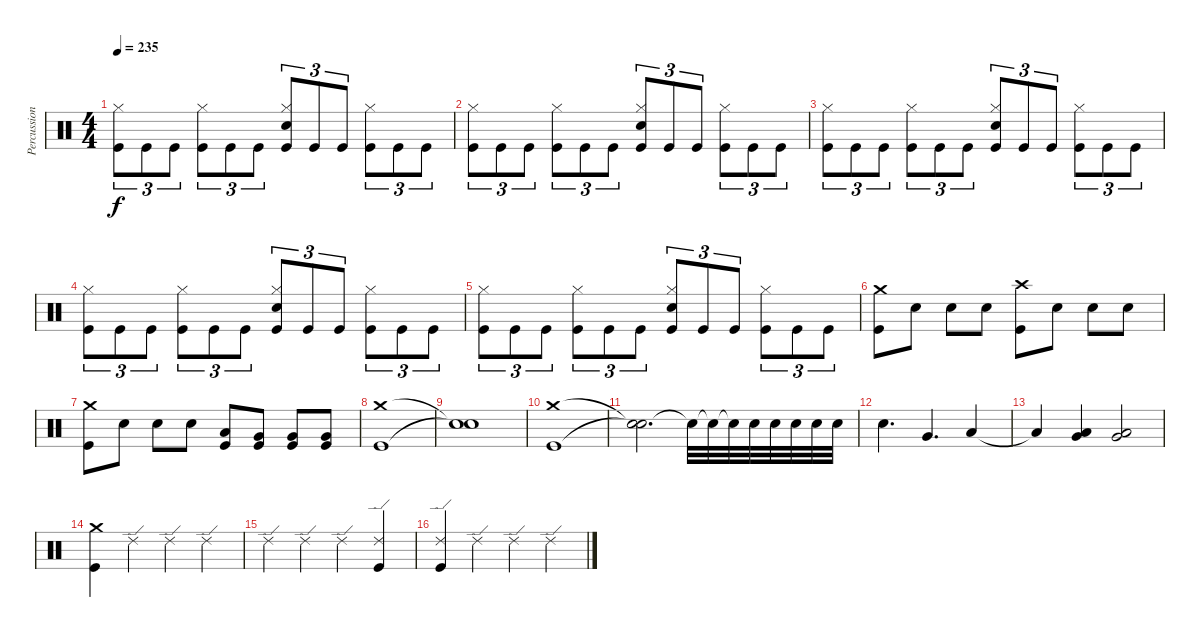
\track ("Percussion" "Percussion") {instrument percussion}
\staff {score}
\articulation defaults
\ts (4 4)
\tempo 235
\clef neutral
\ks c
("Kick (hit)" "Hi-Hat (closed)").8{tu (3 2) dy f} "Kick (hit)".8{tu (3 2)} "Kick (hit)".8{tu (3 2)} ("Kick (hit)" "Hi-Hat (closed)").8{tu (3 2)} "Kick (hit)".8{tu (3 2)} "Kick (hit)".8{tu (3 2)} ("Kick (hit)" "Hi-Hat (closed)" "Snare (hit) 2").8{tu (3 2)} "Kick (hit)".8{tu (3 2)} "Kick (hit)".8{tu (3 2)} ("Kick (hit)" "Hi-Hat (closed)").8{tu (3 2)} "Kick (hit)".8{tu (3 2)} "Kick (hit)".8{tu (3 2)} |
("Kick (hit)" "Hi-Hat (closed)").8{tu (3 2)} "Kick (hit)".8{tu (3 2)} "Kick (hit)".8{tu (3 2)} ("Kick (hit)" "Hi-Hat (closed)").8{tu (3 2)} "Kick (hit)".8{tu (3 2)} "Kick (hit)".8{tu (3 2)} ("Kick (hit)" "Hi-Hat (closed)" "Snare (hit) 2").8{tu (3 2)} "Kick (hit)".8{tu (3 2)} "Kick (hit)".8{tu (3 2)} ("Kick (hit)" "Hi-Hat (closed)").8{tu (3 2)} "Kick (hit)".8{tu (3 2)} "Kick (hit)".8{tu (3 2)} |
("Kick (hit)" "Hi-Hat (closed)").8{tu (3 2)} "Kick (hit)".8{tu (3 2)} "Kick (hit)".8{tu (3 2)} ("Kick (hit)" "Hi-Hat (closed)").8{tu (3 2)} "Kick (hit)".8{tu (3 2)} "Kick (hit)".8{tu (3 2)} ("Kick (hit)" "Hi-Hat (closed)" "Snare (hit) 2").8{tu (3 2)} "Kick (hit)".8{tu (3 2)} "Kick (hit)".8{tu (3 2)} ("Kick (hit)" "Hi-Hat (closed)").8{tu (3 2)} "Kick (hit)".8{tu (3 2)} "Kick (hit)".8{tu (3 2)} |
("Kick (hit)" "Hi-Hat (closed)").8{tu (3 2)} "Kick (hit)".8{tu (3 2)} "Kick (hit)".8{tu (3 2)} ("Kick (hit)" "Hi-Hat (closed)").8{tu (3 2)} "Kick (hit)".8{tu (3 2)} "Kick (hit)".8{tu (3 2)} ("Kick (hit)" "Hi-Hat (closed)" "Snare (hit) 2").8{tu (3 2)} "Kick (hit)".8{tu (3 2)} "Kick (hit)".8{tu (3 2)} ("Kick (hit)" "Hi-Hat (closed)").8{tu (3 2)} "Kick (hit)".8{tu (3 2)} "Kick (hit)".8{tu (3 2)} |
("Kick (hit)" "Hi-Hat (closed)").8{tu (3 2)} "Kick (hit)".8{tu (3 2)} "Kick (hit)".8{tu (3 2)} ("Kick (hit)" "Hi-Hat (closed)").8{tu (3 2)} "Kick (hit)".8{tu (3 2)} "Kick (hit)".8{tu (3 2)} ("Kick (hit)" "Hi-Hat (closed)" "Snare (hit) 2").8{tu (3 2)} "Kick (hit)".8{tu (3 2)} "Kick (hit)".8{tu (3 2)} ("Kick (hit)" "Hi-Hat (closed)").8{tu (3 2)} "Kick (hit)".8{tu (3 2)} "Kick (hit)".8{tu (3 2)} |
("Kick (hit)" "Crash medium (hit)").8 "Snare (hit) 2".8 "Snare (hit) 2".8 "Snare (hit) 2".8 ("Kick (hit)" "Crash high (hit)").8 "Snare (hit) 2".8 "Snare (hit) 2".8 "Snare (hit) 2".8 |
("Crash medium (hit)" "Kick (hit)").8 "Snare (hit) 2".8 "Snare (hit) 2".8 "Snare (hit) 2".8 ("Kick (hit)" "Low Floor Tom (hit)").8 ("Kick (hit)" "Very Low Tom (hit)").8 ("Kick (hit)" "Very Low Tom (hit)").8 ("Kick (hit)" "Very Low Tom (hit)").8 |
("Kick (hit)" "Crash medium (hit)").1 |
("Snare (hit)"{t} "Snare (hit)"{t}).1 |
("Crash medium (hit)" "Kick (hit)").1 |
("Snare (hit)"{t} "Snare (hit)"{t}).2{d} "Snare (hit) 2"{t}.32 "Snare (hit) 2"{t}.32 "Snare (hit) 2"{t}.32 "Snare (hit) 2".32 "Snare (hit) 2".32 "Snare (hit) 2".32 "Snare (hit) 2".32 "Snare (hit) 2".32 |
"Snare (hit) 2".4{d} "Very Low Tom (hit)".4{d} "Low Floor Tom (hit)".4 |
"Low Floor Tom (hit)"{t}.4 ("Very Low Tom (hit)" "Low Floor Tom (hit)").4 ("Very Low Tom (hit)" "Low Floor Tom (hit)").2 |
("Kick (hit)" "Crash medium (hit)").4 "Ride (edge) 2".4 "Ride (edge) 2".4 "Ride (edge) 2".4 |
"Ride (edge) 2".4 "Ride (edge) 2".4 "Ride (edge) 2".4 ("Kick (hit)" "Ride (edge) 2").4 |
("Kick (hit)" "Ride (edge) 2").4 "Ride (edge) 2".4 "Ride (edge) 2".4 "Ride (edge) 2".4
